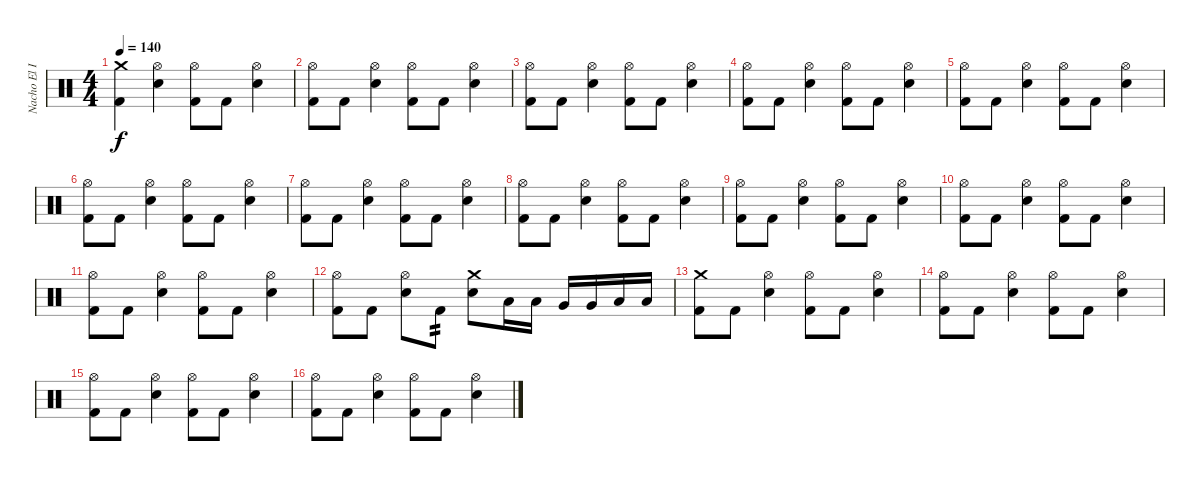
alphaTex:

\track ("Nacho El Implacable Gonzalez" "Nacho El I") {instrument percussion}
\staff {score}
\articulation defaults
\ts (4 4)
\tempo 140
\clef neutral
\ks c
("Crash medium (hit)" "Kick (hit) 2").4{dy f} ("Hi-Hat (open)" "Electric Snare (hit)").4 ("Hi-Hat (open)" "Kick (hit) 2").8 "Kick (hit) 2".8 ("Hi-Hat (open)" "Electric Snare (hit)").4 |
("Hi-Hat (open)" "Kick (hit) 2").8 "Kick (hit) 2".8 ("Hi-Hat (open)" "Electric Snare (hit)").4 ("Hi-Hat (open)" "Kick (hit) 2").8 "Kick (hit) 2".8 ("Hi-Hat (open)" "Electric Snare (hit)").4 |
("Hi-Hat (open)" "Kick (hit) 2").8 "Kick (hit) 2".8 ("Hi-Hat (open)" "Electric Snare (hit)").4 ("Hi-Hat (open)" "Kick (hit) 2").8 "Kick (hit) 2".8 ("Hi-Hat (open)" "Electric Snare (hit)").4 |
("Hi-Hat (open)" "Kick (hit) 2").8 "Kick (hit) 2".8 ("Hi-Hat (open)" "Electric Snare (hit)").4 ("Hi-Hat (open)" "Kick (hit) 2").8 "Kick (hit) 2".8 ("Hi-Hat (open)" "Electric Snare (hit)").4 |
("Hi-Hat (open)" "Kick (hit) 2").8 "Kick (hit) 2".8 ("Hi-Hat (open)" "Electric Snare (hit)").4 ("Hi-Hat (open)" "Kick (hit) 2").8 "Kick (hit) 2".8 ("Hi-Hat (open)" "Electric Snare (hit)").4 |
("Hi-Hat (open)" "Kick (hit) 2").8 "Kick (hit) 2".8 ("Hi-Hat (open)" "Electric Snare (hit)").4 ("Hi-Hat (open)" "Kick (hit) 2").8 "Kick (hit) 2".8 ("Hi-Hat (open)" "Electric Snare (hit)").4 |
("Hi-Hat (open)" "Kick (hit) 2").8 "Kick (hit) 2".8 ("Hi-Hat (open)" "Electric Snare (hit)").4 ("Hi-Hat (open)" "Kick (hit) 2").8 "Kick (hit) 2".8 ("Hi-Hat (open)" "Electric Snare (hit)").4 |
("Hi-Hat (open)" "Kick (hit) 2").8 "Kick (hit) 2".8 ("Hi-Hat (open)" "Electric Snare (hit)").4 ("Hi-Hat (open)" "Kick (hit) 2").8 "Kick (hit) 2".8 ("Hi-Hat (open)" "Electric Snare (hit)").4 |
("Hi-Hat (open)" "Kick (hit) 2").8 "Kick (hit) 2".8 ("Hi-Hat (open)" "Electric Snare (hit)").4 ("Hi-Hat (open)" "Kick (hit) 2").8 "Kick (hit) 2".8 ("Hi-Hat (open)" "Electric Snare (hit)").4 |
("Hi-Hat (open)" "Kick (hit) 2").8 "Kick (hit) 2".8 ("Hi-Hat (open)" "Electric Snare (hit)").4 ("Hi-Hat (open)" "Kick (hit) 2").8 "Kick (hit) 2".8 ("Hi-Hat (open)" "Electric Snare (hit)").4 |
("Hi-Hat (open)" "Kick (hit) 2").8 "Kick (hit) 2".8 ("Hi-Hat (open)" "Electric Snare (hit)").4 ("Hi-Hat (open)" "Kick (hit) 2").8 "Kick (hit) 2".8 ("Hi-Hat (open)" "Electric Snare (hit)").4 |
("Hi-Hat (open)" "Kick (hit) 2").8 "Kick (hit) 2".8 ("Hi-Hat (open)" "Electric Snare (hit)").8 "Kick (hit) 2".8{tp 2} ("Crash medium (hit)" "Electric Snare (hit)").8 "Low Tom (hit)".16 "Low Tom (hit)".16 "Very Low Tom (hit)".16 "Very Low Tom (hit)".16 "Low Floor Tom (hit)".16 "Low Floor Tom (hit)".16 |
("Crash medium (hit)" "Kick (hit) 2").8 "Kick (hit) 2".8 ("Hi-Hat (open)" "Electric Snare (hit)").4 ("Hi-Hat (open)" "Kick (hit) 2").8 "Kick (hit) 2".8 ("Hi-Hat (open)" "Electric Snare (hit)").4 |
("Hi-Hat (open)" "Kick (hit) 2").8 "Kick (hit) 2".8 ("Hi-Hat (open)" "Electric Snare (hit)").4 ("Hi-Hat (open)" "Kick (hit) 2").8 "Kick (hit) 2".8 ("Hi-Hat (open)" "Electric Snare (hit)").4 |
("Hi-Hat (open)" "Kick (hit) 2").8 "Kick (hit) 2".8 ("Hi-Hat (open)" "Electric Snare (hit)").4 ("Hi-Hat (open)" "Kick (hit) 2").8 "Kick (hit) 2".8 ("Hi-Hat (open)" "Electric Snare (hit)").4 |
("Hi-Hat (open)" "Kick (hit) 2").8 "Kick (hit) 2".8 ("Hi-Hat (open)" "Electric Snare (hit)").4 ("Hi-Hat (open)" "Kick (hit) 2").8 "Kick (hit) 2".8 ("Hi-Hat (open)" "Electric Snare (hit)").4
